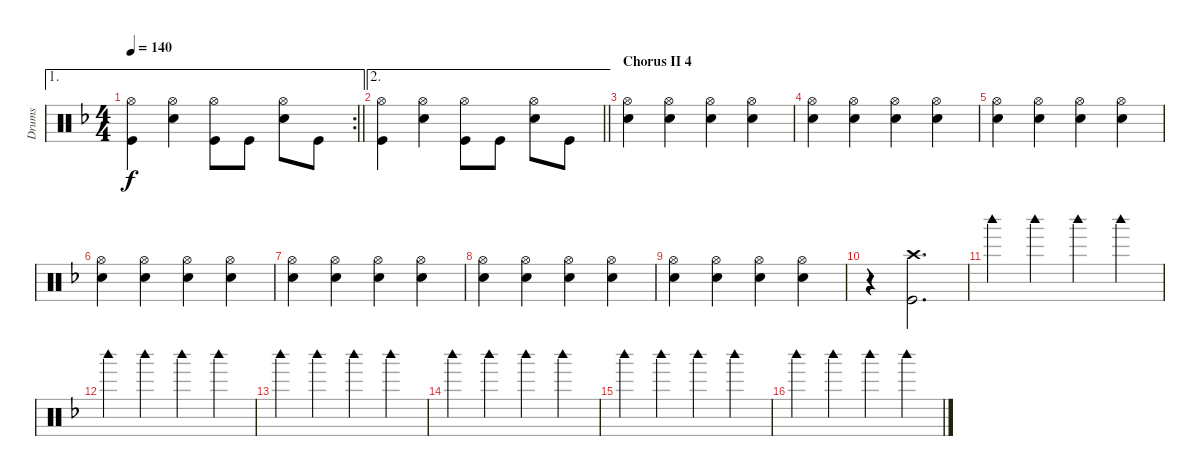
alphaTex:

\track ("Drums" "Drums") {instrument percussion}
\staff {score}
\articulation defaults
\ae 1
\rc 2
\ts (4 4)
\tempo 140
\clef neutral
\barLineRight lightlight
\ks f
("Hi-Hat (open)" "Kick (hit)").4{dy f} ("Hi-Hat (open)" "Snare (hit) 2").4 ("Hi-Hat (open)" "Kick (hit)").8 "Kick (hit)".8 ("Hi-Hat (open)" "Snare (hit) 2").8 "Kick (hit)".8 |
\ae 2
\barLineRight lightlight
("Hi-Hat (open)" "Kick (hit)").4 ("Hi-Hat (open)" "Snare (hit) 2").4 ("Hi-Hat (open)" "Kick (hit)").8 "Kick (hit)".8 ("Hi-Hat (open)" "Snare (hit) 2").8 "Kick (hit)".8 |
\section ("" "Chorus II 4")
("Hi-Hat (open)" "Snare (hit) 2").4 ("Hi-Hat (open)" "Snare (hit) 2").4 ("Hi-Hat (open)" "Snare (hit) 2").4 ("Hi-Hat (open)" "Snare (hit) 2").4 |
("Hi-Hat (open)" "Snare (hit) 2").4 ("Hi-Hat (open)" "Snare (hit) 2").4 ("Hi-Hat (open)" "Snare (hit) 2").4 ("Hi-Hat (open)" "Snare (hit) 2").4 |
("Hi-Hat (open)" "Snare (hit) 2").4 ("Hi-Hat (open)" "Snare (hit) 2").4 ("Hi-Hat (open)" "Snare (hit) 2").4 ("Hi-Hat (open)" "Snare (hit) 2").4 |
("Hi-Hat (open)" "Snare (hit) 2").4 ("Hi-Hat (open)" "Snare (hit) 2").4 ("Hi-Hat (open)" "Snare (hit) 2").4 ("Hi-Hat (open)" "Snare (hit) 2").4 |
("Hi-Hat (open)" "Snare (hit) 2").4 ("Hi-Hat (open)" "Snare (hit) 2").4 ("Hi-Hat (open)" "Snare (hit) 2").4 ("Hi-Hat (open)" "Snare (hit) 2").4 |
("Hi-Hat (open)" "Snare (hit) 2").4 ("Hi-Hat (open)" "Snare (hit) 2").4 ("Hi-Hat (open)" "Snare (hit) 2").4 ("Hi-Hat (open)" "Snare (hit) 2").4 |
("Hi-Hat (open)" "Snare (hit) 2").4 ("Hi-Hat (open)" "Snare (hit) 2").4 ("Hi-Hat (open)" "Snare (hit) 2").4 ("Hi-Hat (open)" "Snare (hit) 2").4 |
r.4 ("Crash high (hit)" "Kick (hit)").2{d} |
"Woodblock high (hit)".4 "Woodblock high (hit)".4 "Woodblock high (hit)".4 "Woodblock high (hit)".4 |
"Woodblock high (hit)".4 "Woodblock high (hit)".4 "Woodblock high (hit)".4 "Woodblock high (hit)".4 |
"Woodblock high (hit)".4 "Woodblock high (hit)".4 "Woodblock high (hit)".4 "Woodblock high (hit)".4 |
"Woodblock high (hit)".4 "Woodblock high (hit)".4 "Woodblock high (hit)".4 "Woodblock high (hit)".4 |
"Woodblock high (hit)".4 "Woodblock high (hit)".4 "Woodblock high (hit)".4 "Woodblock high (hit)".4 |
"Woodblock high (hit)".4 "Woodblock high (hit)".4 "Woodblock high (hit)".4 "Woodblock high (hit)".4
